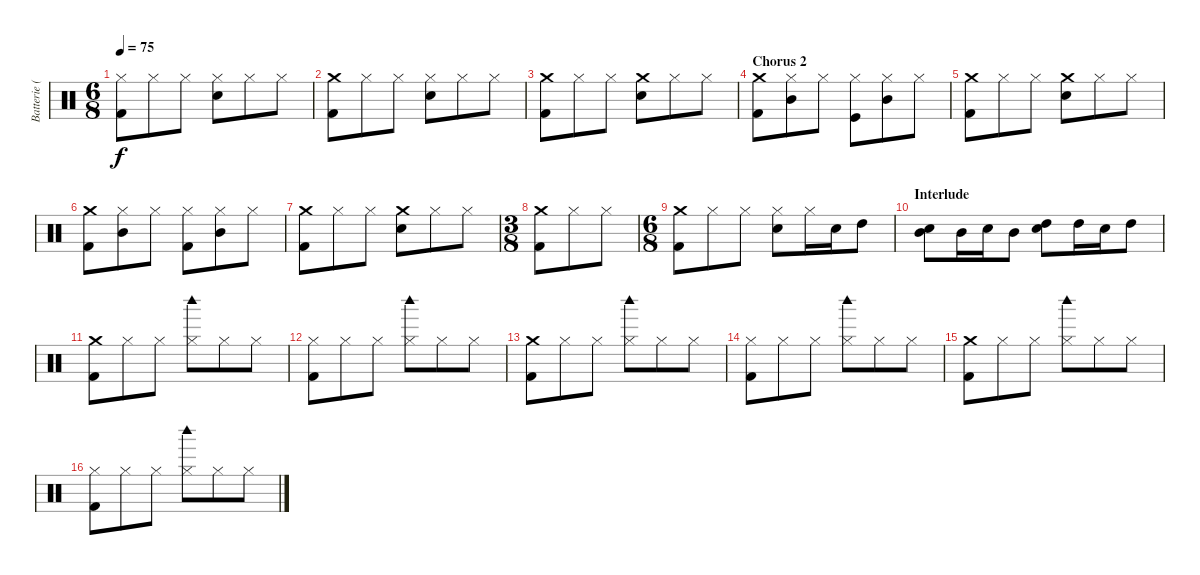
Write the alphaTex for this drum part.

\track ("Batterie ( Lars Ulrich )" "Batterie (") {instrument percussion}
\staff {score}
\articulation defaults
\ts (6 8)
\tempo 75
\clef neutral
\ks c
("Kick (hit) 2" "Hi-Hat (closed)").8{dy f} "Hi-Hat (closed)".8 "Hi-Hat (closed)".8 ("Snare (hit) 2" "Hi-Hat (closed)").8 "Hi-Hat (closed)".8 "Hi-Hat (closed)".8 |
("Kick (hit) 2" "Crash medium (hit)").8 "Hi-Hat (closed)".8 "Hi-Hat (closed)".8 ("Snare (hit) 2" "Hi-Hat (closed)").8 "Hi-Hat (closed)".8 "Hi-Hat (closed)".8 |
("Kick (hit) 2" "Crash medium (hit)").8 "Hi-Hat (closed)".8 "Hi-Hat (closed)".8 ("Snare (hit) 2" "Crash medium (hit)").8 "Hi-Hat (closed)".8 "Hi-Hat (closed)".8 |
\section ("" "Chorus 2")
("Kick (hit) 2" "Crash medium (hit)").8 ("Mid Tom (hit)" "Hi-Hat (closed)").8 "Hi-Hat (closed)".8 ("Kick (hit)" "Hi-Hat (closed)").8 ("Mid Tom (hit)" "Hi-Hat (closed)").8 "Hi-Hat (closed)".8 |
("Kick (hit) 2" "Crash medium (hit)").8 "Hi-Hat (closed)".8 "Hi-Hat (closed)".8 ("Snare (hit) 2" "Crash medium (hit)").8 "Hi-Hat (closed)".8 "Hi-Hat (closed)".8 |
("Kick (hit) 2" "Crash medium (hit)").8 ("Mid Tom (hit)" "Hi-Hat (closed)").8 "Hi-Hat (closed)".8 ("Kick (hit) 2" "Hi-Hat (closed)").8 ("Mid Tom (hit)" "Hi-Hat (closed)").8 "Hi-Hat (closed)".8 |
("Kick (hit) 2" "Crash medium (hit)").8 "Hi-Hat (closed)".8 "Hi-Hat (closed)".8 ("Snare (hit) 2" "Crash medium (hit)").8 "Hi-Hat (closed)".8 "Hi-Hat (closed)".8 |
\ts (3 8)
("Kick (hit) 2" "Crash medium (hit)").8 "Hi-Hat (closed)".8 "Hi-Hat (closed)".8 |
\ts (6 8)
("Kick (hit) 2" "Crash medium (hit)").8 "Hi-Hat (closed)".8 "Hi-Hat (closed)".8 ("Snare (hit) 2" "Hi-Hat (closed)").8 "Hi-Hat (closed)".16 "Snare (hit) 2".16 "High Tom (hit)".8 |
\section ("" "Interlude")
("Mid Tom (hit)" "Snare (hit) 2").8 "Mid Tom (hit)".16 "Snare (hit) 2".16 "Mid Tom (hit)".8 ("High Tom (hit)" "Snare (hit) 2").8 "High Tom (hit)".16 "Snare (hit) 2".16 "High Tom (hit)".8 |
("Kick (hit) 2" "Crash medium (hit)").8 "Hi-Hat (closed)".8 "Hi-Hat (closed)".8 ("Woodblock high (hit)" "Hi-Hat (closed)").8 "Hi-Hat (closed)".8 "Hi-Hat (closed)".8 |
("Kick (hit) 2" "Hi-Hat (closed)").8 "Hi-Hat (closed)".8 "Hi-Hat (closed)".8 ("Woodblock high (hit)" "Hi-Hat (closed)").8 "Hi-Hat (closed)".8 "Hi-Hat (closed)".8 |
("Kick (hit) 2" "Crash medium (hit)").8 "Hi-Hat (closed)".8 "Hi-Hat (closed)".8 ("Woodblock high (hit)" "Hi-Hat (closed)").8 "Hi-Hat (closed)".8 "Hi-Hat (closed)".8 |
("Kick (hit) 2" "Hi-Hat (closed)").8 "Hi-Hat (closed)".8 "Hi-Hat (closed)".8 ("Woodblock high (hit)" "Hi-Hat (closed)").8 "Hi-Hat (closed)".8 "Hi-Hat (closed)".8 |
("Kick (hit) 2" "Crash medium (hit)").8 "Hi-Hat (closed)".8 "Hi-Hat (closed)".8 ("Woodblock high (hit)" "Hi-Hat (closed)").8 "Hi-Hat (closed)".8 "Hi-Hat (closed)".8 |
("Kick (hit) 2" "Hi-Hat (closed)").8 "Hi-Hat (closed)".8 "Hi-Hat (closed)".8 ("Woodblock high (hit)" "Hi-Hat (closed)").8 "Hi-Hat (closed)".8 "Hi-Hat (closed)".8
